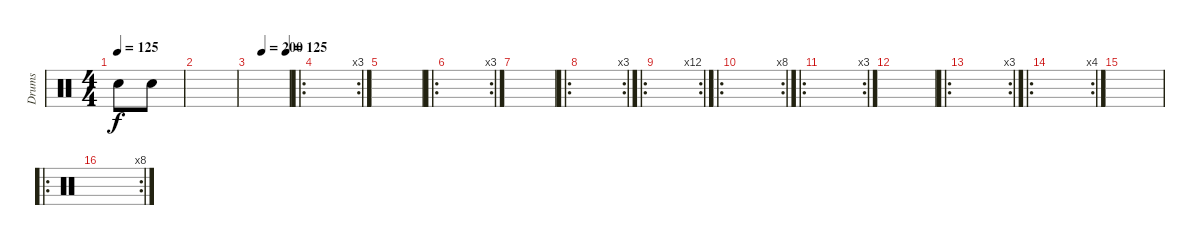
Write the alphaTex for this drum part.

\track ("Drums" "Drums") {instrument percussion}
\staff {score}
\articulation defaults
\ts (4 4)
\tempo 125
\clef neutral
\ks c "Electric Snare (hit)".8{dy f} "Electric Snare (hit)".8
|
|
\tempo (200 0.3125)
\tempo (125 0.9375)
|
\ro
\rc 3
|
|
\ro
\rc 3
|
|
\ro
\rc 3
|
\ro
\rc 12
|
\ro
\rc 8
|
\ro
\rc 3
|
|
\ro
\rc 3
|
\ro
\rc 4
|
|
\ro
\rc 8
